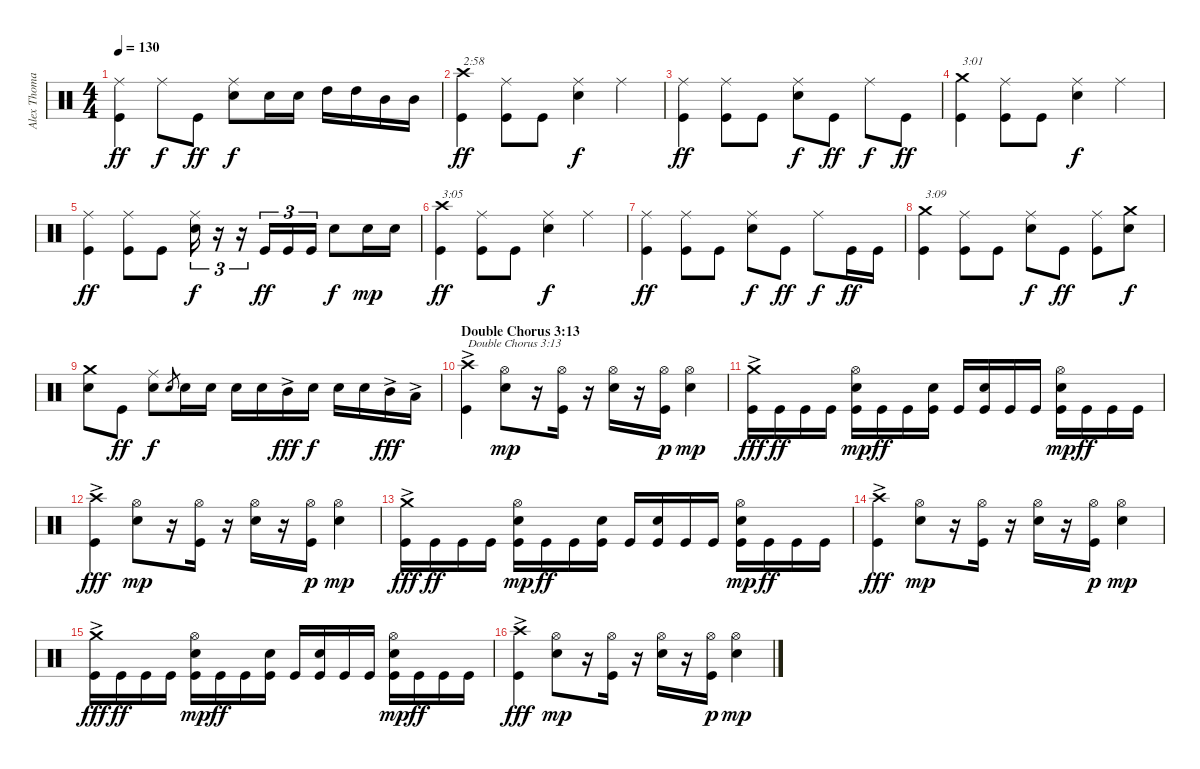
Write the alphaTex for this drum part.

\track ("Alex Thomas (Drums)" "Alex Thoma") {instrument percussion}
\staff {score}
\articulation defaults
\ts (4 4)
\tempo 130
\clef neutral
\ks c
("Kick (hit)" "Ride (middle)").4{dy ff} "Ride (middle)".8{dy f} "Kick (hit)".8{dy ff} ("Electric Snare (hit)" "Ride (middle)").8{dy f} "Electric Snare (hit)".16 "Electric Snare (hit)".16 "High Tom (hit)".16 "High Tom (hit)".16 "Mid Tom (hit)".16 "Mid Tom (hit)".16 |
("Kick (hit)" "Crash high (hit)").4{txt "2:58" dy ff} ("Kick (hit)" "Ride (middle)").8 "Kick (hit)".8 ("Electric Snare (hit)" "Ride (middle)").4{dy f} "Ride (middle)".4 |
("Kick (hit)" "Ride (middle)").4{dy ff} ("Kick (hit)" "Ride (middle)").8 "Kick (hit)".8 ("Electric Snare (hit)" "Ride (middle)").8{dy f} "Kick (hit)".8{dy ff} "Ride (middle)".8{dy f} "Kick (hit)".8{dy ff} |
("Kick (hit)" "Crash medium (hit)").4{txt "3:01"} ("Kick (hit)" "Ride (middle)").8 "Kick (hit)".8 ("Electric Snare (hit)" "Ride (middle)").4{dy f} "Ride (middle)".4 |
("Kick (hit)" "Ride (middle)").4{dy ff} ("Kick (hit)" "Ride (middle)").8 "Kick (hit)".8 ("Electric Snare (hit)" "Ride (middle)").16{tu (3 2) dy f} r.16{tu (3 2)} r.16{tu (3 2)} "Kick (hit)".16{tu (3 2) dy ff} "Kick (hit)".16{tu (3 2)} "Kick (hit)".16{tu (3 2)} "Electric Snare (hit)".8{dy f} "Electric Snare (hit)".16{dy mp} "Electric Snare (hit)".16 |
("Kick (hit)" "Crash high (hit)").4{txt "3:05" dy ff} ("Kick (hit)" "Ride (middle)").8 "Kick (hit)".8 ("Electric Snare (hit)" "Ride (middle)").4{dy f} "Ride (middle)".4 |
("Kick (hit)" "Ride (middle)").4{dy ff} ("Kick (hit)" "Ride (middle)").8 "Kick (hit)".8 ("Electric Snare (hit)" "Ride (middle)").8{dy f} "Kick (hit)".8{dy ff} "Ride (middle)".8{dy f} "Kick (hit)".16{dy ff} "Kick (hit)".16 |
("Kick (hit)" "Crash medium (hit)").4{txt "3:09"} ("Kick (hit)" "Ride (middle)").8 "Kick (hit)".8 ("Electric Snare (hit)" "Ride (middle)").8{dy f} "Kick (hit)".8{dy ff} ("Kick (hit)" "Ride (middle)").8 ("Electric Snare (hit)" "Crash medium (hit)").8{dy f} |
("Electric Snare (hit)" "Crash medium (hit)").8 "Kick (hit)".8{dy ff} ("Electric Snare (hit)" "Ride (middle)").8{dy f} "Electric Snare (hit)".8{gr} "Electric Snare (hit)".16 "Electric Snare (hit)".16 "Electric Snare (hit)".16 "Electric Snare (hit)".16 "Mid Tom (hit)"{ac}.16{dy fff} "Electric Snare (hit)".16{dy f} "Electric Snare (hit)".16 "Electric Snare (hit)".16 "Mid Tom (hit)"{ac}.16{dy fff} "Low Tom (hit)"{ac}.16 |
\section ("" "Double Chorus 3:13")
("Kick (hit)" "Crash high (hit)"{ac}).4{txt "Double Chorus 3:13"} ("Electric Snare (hit)" "Hi-Hat (open)").8{dy mp} r.16 ("Kick (hit)" "Hi-Hat (open)").16 r.16 ("Electric Snare (hit)" "Hi-Hat (open)").16 r.16 ("Kick (hit)" "Hi-Hat (open)").16{dy p} ("Electric Snare (hit)" "Hi-Hat (open)").4{dy mp} |
("Kick (hit)" "Crash medium (hit)"{ac}).16{dy fff} "Kick (hit)".16{dy ff} "Kick (hit)".16 "Kick (hit)".16 ("Kick (hit)" "Electric Snare (hit)" "Hi-Hat (open)").16{dy mp} "Kick (hit)".16{dy ff} "Kick (hit)".16 ("Kick (hit)" "Electric Snare (hit)").16 "Kick (hit)".16 ("Kick (hit)" "Electric Snare (hit)").16 "Kick (hit)".16 "Kick (hit)".16 ("Kick (hit)" "Electric Snare (hit)" "Hi-Hat (open)").16{dy mp} "Kick (hit)".16{dy ff} "Kick (hit)".16 "Kick (hit)".16 |
("Kick (hit)" "Crash high (hit)"{ac}).4{dy fff} ("Electric Snare (hit)" "Hi-Hat (open)").8{dy mp} r.16 ("Kick (hit)" "Hi-Hat (open)").16 r.16 ("Electric Snare (hit)" "Hi-Hat (open)").16 r.16 ("Kick (hit)" "Hi-Hat (open)").16{dy p} ("Electric Snare (hit)" "Hi-Hat (open)").4{dy mp} |
("Kick (hit)" "Crash medium (hit)"{ac}).16{dy fff} "Kick (hit)".16{dy ff} "Kick (hit)".16 "Kick (hit)".16 ("Kick (hit)" "Electric Snare (hit)" "Hi-Hat (open)").16{dy mp} "Kick (hit)".16{dy ff} "Kick (hit)".16 ("Kick (hit)" "Electric Snare (hit)").16 "Kick (hit)".16 ("Kick (hit)" "Electric Snare (hit)").16 "Kick (hit)".16 "Kick (hit)".16 ("Kick (hit)" "Electric Snare (hit)" "Hi-Hat (open)").16{dy mp} "Kick (hit)".16{dy ff} "Kick (hit)".16 "Kick (hit)".16 |
("Kick (hit)" "Crash high (hit)"{ac}).4{dy fff} ("Electric Snare (hit)" "Hi-Hat (open)").8{dy mp} r.16 ("Kick (hit)" "Hi-Hat (open)").16 r.16 ("Electric Snare (hit)" "Hi-Hat (open)").16 r.16 ("Kick (hit)" "Hi-Hat (open)").16{dy p} ("Electric Snare (hit)" "Hi-Hat (open)").4{dy mp} |
("Kick (hit)" "Crash medium (hit)"{ac}).16{dy fff} "Kick (hit)".16{dy ff} "Kick (hit)".16 "Kick (hit)".16 ("Kick (hit)" "Electric Snare (hit)" "Hi-Hat (open)").16{dy mp} "Kick (hit)".16{dy ff} "Kick (hit)".16 ("Kick (hit)" "Electric Snare (hit)").16 "Kick (hit)".16 ("Kick (hit)" "Electric Snare (hit)").16 "Kick (hit)".16 "Kick (hit)".16 ("Kick (hit)" "Electric Snare (hit)" "Hi-Hat (open)").16{dy mp} "Kick (hit)".16{dy ff} "Kick (hit)".16 "Kick (hit)".16 |
("Kick (hit)" "Crash high (hit)"{ac}).4{dy fff} ("Electric Snare (hit)" "Hi-Hat (open)").8{dy mp} r.16 ("Kick (hit)" "Hi-Hat (open)").16 r.16 ("Electric Snare (hit)" "Hi-Hat (open)").16 r.16 ("Kick (hit)" "Hi-Hat (open)").16{dy p} ("Electric Snare (hit)" "Hi-Hat (open)").4{dy mp}
